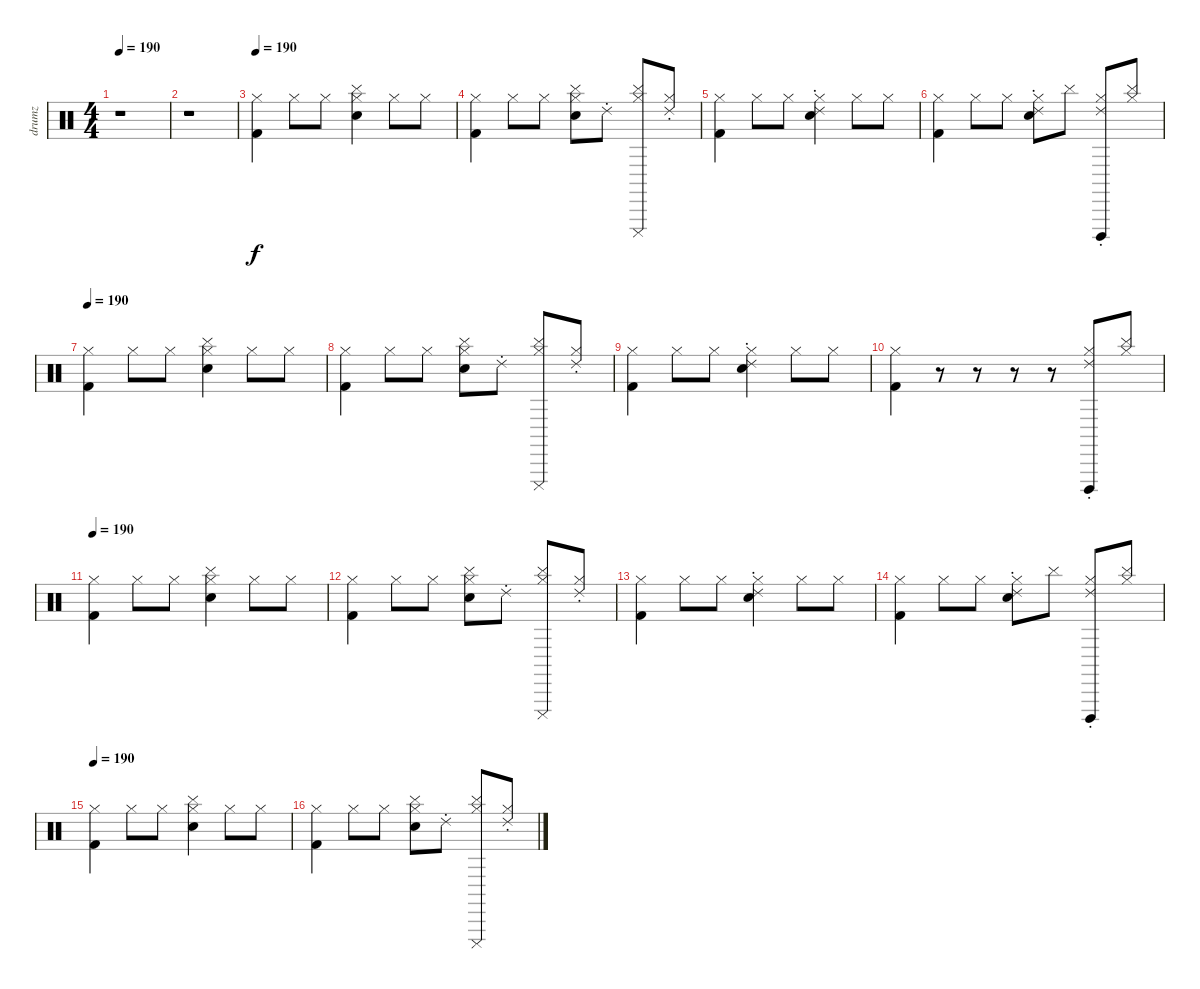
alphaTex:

\track ("drumz" "drumz") {instrument percussion}
\staff {score}
\articulation defaults
\ts (4 4)
\tempo 190
\tempo 150
\tempo 190
\clef neutral
\ks c
r.1{dy f} |
r.1 |
\tempo 190
("Hi-Hat (closed)" "Kick (hit) 2").4 "Hi-Hat (closed)".8 "Hi-Hat (closed)".8 ("Cymbal (hit)" "Hi-Hat (closed)" "Hand Clap (hit)").4 "Hi-Hat (closed)".8 "Hi-Hat (closed)".8 |
("Hi-Hat (closed)" "Kick (hit) 2").4 "Hi-Hat (closed)".8 "Hi-Hat (closed)".8 ("Cymbal (hit)" "Hi-Hat (closed)" "Hand Clap (hit)").8 "Ride (choke) 2".8 ("Cymbal (hit)" "Cuica (mute)" "Hi-Hat (closed)").8 ("Ride (choke) 2" "Hi-Hat (closed)").8 |
("Hi-Hat (closed)" "Kick (hit) 2").4 "Hi-Hat (closed)".8 "Hi-Hat (closed)".8 ("Ride (choke) 2" "Hi-Hat (closed)" "Hand Clap (hit)").4 "Hi-Hat (closed)".8 "Hi-Hat (closed)".8 |
("Hi-Hat (closed)" "Kick (hit) 2").4 "Hi-Hat (closed)".8 "Hi-Hat (closed)".8 ("Ride (choke) 2" "Hi-Hat (closed)" "Hand Clap (hit)").8 "Cymbal (hit)".8 ("Ride (choke) 2" "Cuica (open)" "Hi-Hat (closed)").8 ("Cymbal (hit)" "Hi-Hat (closed)").8 |
\tempo 190
("Hi-Hat (closed)" "Kick (hit) 2").4 "Hi-Hat (closed)".8 "Hi-Hat (closed)".8 ("Cymbal (hit)" "Hi-Hat (closed)" "Hand Clap (hit)").4 "Hi-Hat (closed)".8 "Hi-Hat (closed)".8 |
("Hi-Hat (closed)" "Kick (hit) 2").4 "Hi-Hat (closed)".8 "Hi-Hat (closed)".8 ("Cymbal (hit)" "Hi-Hat (closed)" "Hand Clap (hit)").8 "Ride (choke) 2".8 ("Cymbal (hit)" "Cuica (mute)" "Hi-Hat (closed)").8 ("Ride (choke) 2" "Hi-Hat (closed)").8 |
("Hi-Hat (closed)" "Kick (hit) 2").4 "Hi-Hat (closed)".8 "Hi-Hat (closed)".8 ("Ride (choke) 2" "Hi-Hat (closed)" "Hand Clap (hit)").4 "Hi-Hat (closed)".8 "Hi-Hat (closed)".8 |
("Hi-Hat (closed)" "Kick (hit) 2").4 r.8 r.8 r.8 r.8 ("Ride (choke) 2" "Cuica (open)" "Hi-Hat (closed)").8 ("Cymbal (hit)" "Hi-Hat (closed)").8 |
\tempo 190
("Hi-Hat (closed)" "Kick (hit) 2").4 "Hi-Hat (closed)".8 "Hi-Hat (closed)".8 ("Cymbal (hit)" "Hi-Hat (closed)" "Hand Clap (hit)").4 "Hi-Hat (closed)".8 "Hi-Hat (closed)".8 |
("Hi-Hat (closed)" "Kick (hit) 2").4 "Hi-Hat (closed)".8 "Hi-Hat (closed)".8 ("Cymbal (hit)" "Hi-Hat (closed)" "Hand Clap (hit)").8 "Ride (choke) 2".8 ("Cymbal (hit)" "Cuica (mute)" "Hi-Hat (closed)").8 ("Ride (choke) 2" "Hi-Hat (closed)").8 |
("Hi-Hat (closed)" "Kick (hit) 2").4 "Hi-Hat (closed)".8 "Hi-Hat (closed)".8 ("Ride (choke) 2" "Hi-Hat (closed)" "Hand Clap (hit)").4 "Hi-Hat (closed)".8 "Hi-Hat (closed)".8 |
("Hi-Hat (closed)" "Kick (hit) 2").4 "Hi-Hat (closed)".8 "Hi-Hat (closed)".8 ("Ride (choke) 2" "Hi-Hat (closed)" "Hand Clap (hit)").8 "Cymbal (hit)".8 ("Ride (choke) 2" "Cuica (open)" "Hi-Hat (closed)").8 ("Cymbal (hit)" "Hi-Hat (closed)").8 |
\tempo 190
("Hi-Hat (closed)" "Kick (hit) 2").4 "Hi-Hat (closed)".8 "Hi-Hat (closed)".8 ("Cymbal (hit)" "Hi-Hat (closed)" "Hand Clap (hit)").4 "Hi-Hat (closed)".8 "Hi-Hat (closed)".8 |
("Hi-Hat (closed)" "Kick (hit) 2").4 "Hi-Hat (closed)".8 "Hi-Hat (closed)".8 ("Cymbal (hit)" "Hi-Hat (closed)" "Hand Clap (hit)").8 "Ride (choke) 2".8 ("Cymbal (hit)" "Cuica (mute)" "Hi-Hat (closed)").8 ("Ride (choke) 2" "Hi-Hat (closed)").8
